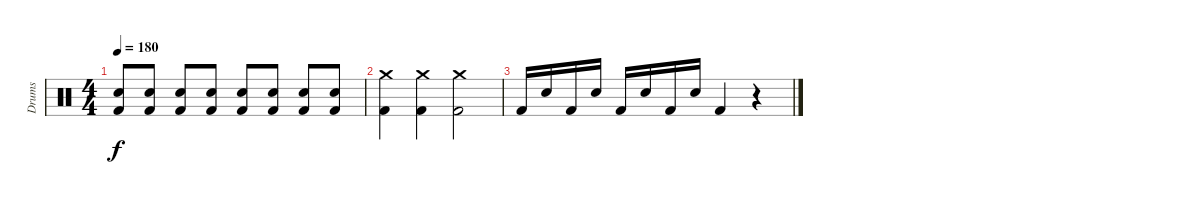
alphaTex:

\track ("Drums" "Drums") {instrument percussion}
\staff {score}
\articulation defaults
\ts (4 4)
\tempo 180
\clef neutral
\ks c
("Snare (hit) 2" "Kick (hit) 2").8{dy f} ("Snare (hit) 2" "Kick (hit) 2").8 ("Snare (hit) 2" "Kick (hit) 2").8 ("Snare (hit) 2" "Kick (hit) 2").8 ("Snare (hit) 2" "Kick (hit) 2").8 ("Snare (hit) 2" "Kick (hit) 2").8 ("Snare (hit) 2" "Kick (hit) 2").8 ("Snare (hit) 2" "Kick (hit) 2").8 |
("Crash medium (hit)" "Kick (hit) 2").4 ("Crash medium (hit)" "Kick (hit) 2").4 ("Crash medium (hit)" "Kick (hit) 2").2 |
"Kick (hit) 2".16 "Snare (hit) 2".16 "Kick (hit) 2".16 "Snare (hit) 2".16 "Kick (hit) 2".16 "Snare (hit) 2".16 "Kick (hit) 2".16 "Snare (hit) 2".16 "Kick (hit) 2".4 r.4
